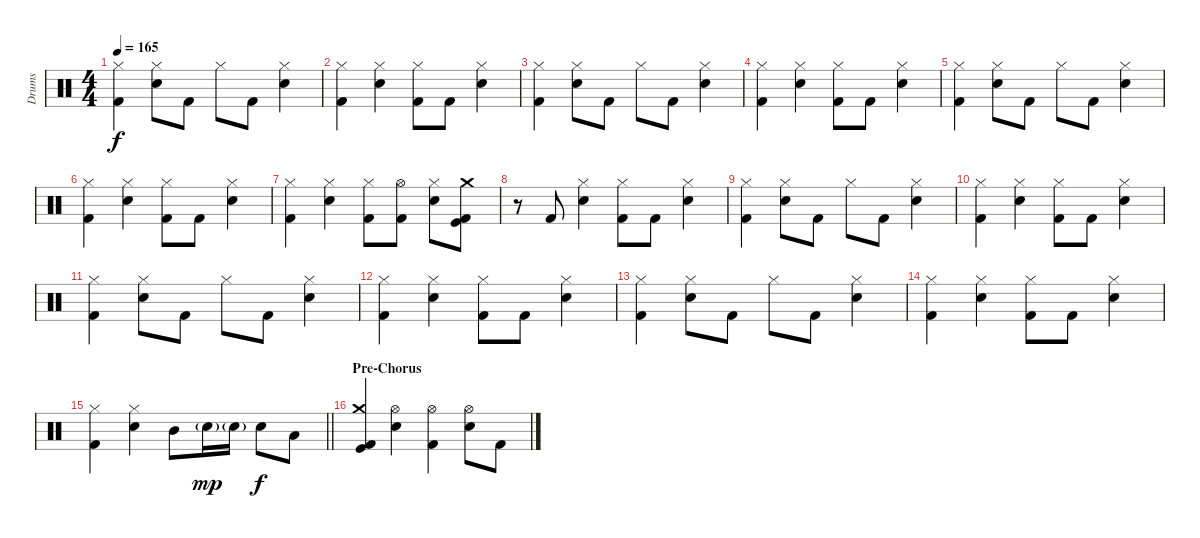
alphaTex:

\track ("Drums" "Drums") {instrument percussion}
\staff {score}
\articulation defaults
\ts (4 4)
\tempo 165
\clef neutral
\ks c
("Hi-Hat (closed)" "Kick (hit) 2").4{dy f} ("Hi-Hat (closed)" "Electric Snare (hit)").8 "Kick (hit) 2".8 "Hi-Hat (closed)".8 "Kick (hit) 2".8 ("Hi-Hat (closed)" "Electric Snare (hit)").4 |
("Hi-Hat (closed)" "Kick (hit) 2").4 ("Hi-Hat (closed)" "Electric Snare (hit)").4 ("Hi-Hat (closed)" "Kick (hit) 2").8 "Kick (hit) 2".8 ("Hi-Hat (closed)" "Electric Snare (hit)").4 |
("Hi-Hat (closed)" "Kick (hit) 2").4 ("Hi-Hat (closed)" "Electric Snare (hit)").8 "Kick (hit) 2".8 "Hi-Hat (closed)".8 "Kick (hit) 2".8 ("Hi-Hat (closed)" "Electric Snare (hit)").4 |
("Hi-Hat (closed)" "Kick (hit) 2").4 ("Hi-Hat (closed)" "Electric Snare (hit)").4 ("Hi-Hat (closed)" "Kick (hit) 2").8 "Kick (hit) 2".8 ("Hi-Hat (closed)" "Electric Snare (hit)").4 |
("Hi-Hat (closed)" "Kick (hit) 2").4 ("Hi-Hat (closed)" "Electric Snare (hit)").8 "Kick (hit) 2".8 "Hi-Hat (closed)".8 "Kick (hit) 2".8 ("Hi-Hat (closed)" "Electric Snare (hit)").4 |
("Hi-Hat (closed)" "Kick (hit) 2").4 ("Hi-Hat (closed)" "Electric Snare (hit)").4 ("Hi-Hat (closed)" "Kick (hit) 2").8 "Kick (hit) 2".8 ("Hi-Hat (closed)" "Electric Snare (hit)").4 |
("Hi-Hat (closed)" "Kick (hit) 2").4 ("Hi-Hat (closed)" "Electric Snare (hit)").4 ("Hi-Hat (closed)" "Kick (hit) 2").8 ("Hi-Hat (open)" "Kick (hit) 2").8 ("Hi-Hat (closed)" "Electric Snare (hit)").8 ("Crash medium (hit)" "Kick (hit) 2" "Kick (hit)").8 |
r.8 "Kick (hit) 2".8 ("Hi-Hat (closed)" "Electric Snare (hit)").4 ("Hi-Hat (closed)" "Kick (hit) 2").8 "Kick (hit) 2".8 ("Hi-Hat (closed)" "Electric Snare (hit)").4 |
("Hi-Hat (closed)" "Kick (hit) 2").4 ("Hi-Hat (closed)" "Electric Snare (hit)").8 "Kick (hit) 2".8 "Hi-Hat (closed)".8 "Kick (hit) 2".8 ("Hi-Hat (closed)" "Electric Snare (hit)").4 |
("Hi-Hat (closed)" "Kick (hit) 2").4 ("Hi-Hat (closed)" "Electric Snare (hit)").4 ("Hi-Hat (closed)" "Kick (hit) 2").8 "Kick (hit) 2".8 ("Hi-Hat (closed)" "Electric Snare (hit)").4 |
("Hi-Hat (closed)" "Kick (hit) 2").4 ("Hi-Hat (closed)" "Electric Snare (hit)").8 "Kick (hit) 2".8 "Hi-Hat (closed)".8 "Kick (hit) 2".8 ("Hi-Hat (closed)" "Electric Snare (hit)").4 |
("Hi-Hat (closed)" "Kick (hit) 2").4 ("Hi-Hat (closed)" "Electric Snare (hit)").4 ("Hi-Hat (closed)" "Kick (hit) 2").8 "Kick (hit) 2".8 ("Hi-Hat (closed)" "Electric Snare (hit)").4 |
("Hi-Hat (closed)" "Kick (hit) 2").4 ("Hi-Hat (closed)" "Electric Snare (hit)").8 "Kick (hit) 2".8 "Hi-Hat (closed)".8 "Kick (hit) 2".8 ("Hi-Hat (closed)" "Electric Snare (hit)").4 |
("Hi-Hat (closed)" "Kick (hit) 2").4 ("Hi-Hat (closed)" "Electric Snare (hit)").4 ("Hi-Hat (closed)" "Kick (hit) 2").8 "Kick (hit) 2".8 ("Hi-Hat (closed)" "Electric Snare (hit)").4 |
\barLineRight lightlight
("Hi-Hat (closed)" "Kick (hit) 2").4 ("Hi-Hat (closed)" "Electric Snare (hit)").4 "Mid Tom (hit)".8 "Electric Snare (hit)"{g}.16{dy mp} "Electric Snare (hit)"{g}.16 "Electric Snare (hit)".8{dy f} "Low Tom (hit)".8 |
\section ("" "Pre-Chorus")
("Crash medium (hit)" "Kick (hit) 2" "Kick (hit)").4 ("Hi-Hat (open)" "Electric Snare (hit)").4 ("Hi-Hat (open)" "Kick (hit) 2").4 ("Hi-Hat (open)" "Electric Snare (hit)").8 "Kick (hit) 2".8
